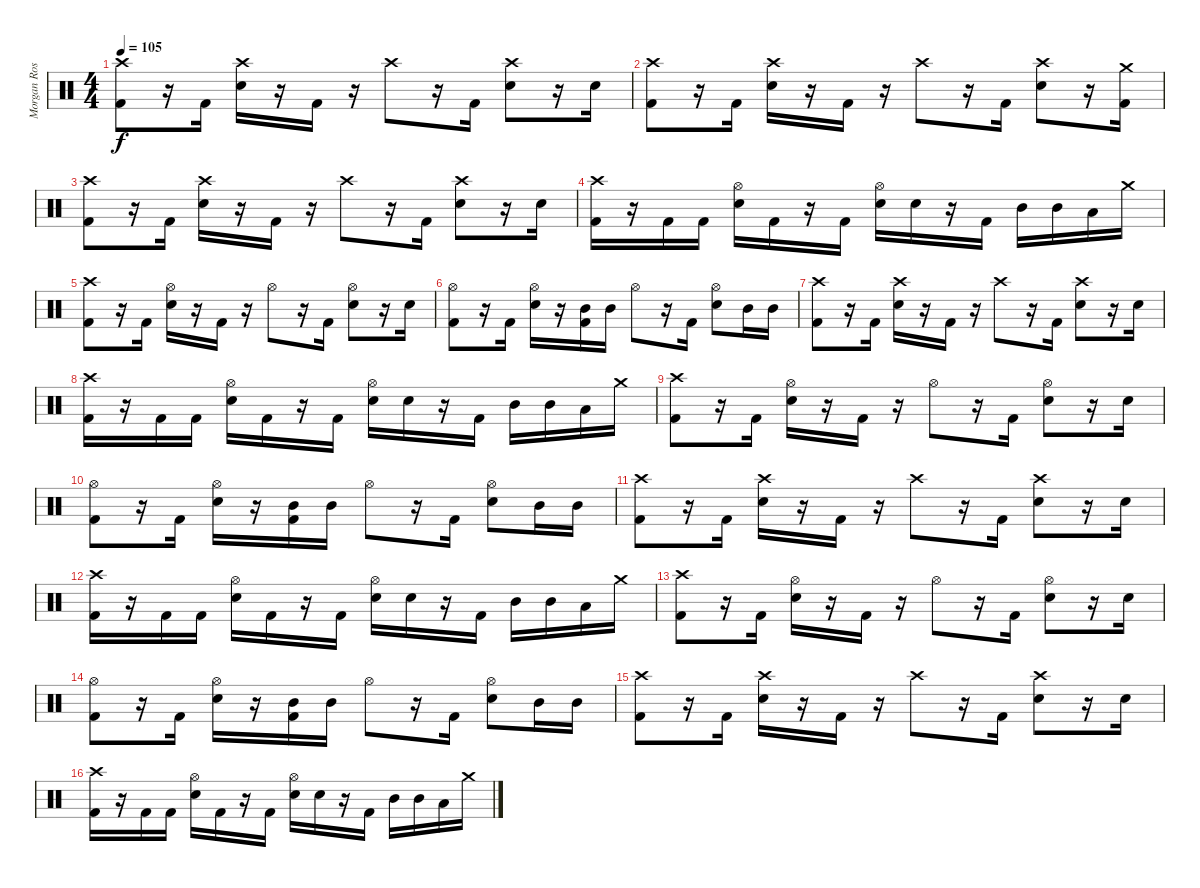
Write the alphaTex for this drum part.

\track ("Morgan Rose - Drums" "Morgan Ros") {instrument percussion}
\staff {score}
\articulation defaults
\ts (4 4)
\tempo 105
\clef neutral
\ks c
("Crash high (hit)" "Kick (hit) 2").8{dy f} r.16 "Kick (hit) 2".16 ("Crash high (hit)" "Electric Snare (hit)").16 r.16 "Kick (hit) 2".16 r.16 "Crash high (hit)".8 r.16 "Kick (hit) 2".16 ("Crash high (hit)" "Electric Snare (hit)").8 r.16 "Electric Snare (hit)".16 |
("Crash high (hit)" "Kick (hit) 2").8 r.16 "Kick (hit) 2".16 ("Crash high (hit)" "Electric Snare (hit)").16 r.16 "Kick (hit) 2".16 r.16 "Crash high (hit)".8 r.16 "Kick (hit) 2".16 ("Crash high (hit)" "Electric Snare (hit)").8 r.16 ("Crash medium (hit)" "Kick (hit) 2").16 |
("Crash high (hit)" "Kick (hit) 2").8 r.16 "Kick (hit) 2".16 ("Crash high (hit)" "Electric Snare (hit)").16 r.16 "Kick (hit) 2".16 r.16 "Crash high (hit)".8 r.16 "Kick (hit) 2".16 ("Crash high (hit)" "Electric Snare (hit)").8 r.16 "Electric Snare (hit)".16 |
("Crash high (hit)" "Kick (hit) 2").16 r.16 "Kick (hit) 2".16 "Kick (hit) 2".16 ("Hi-Hat (open)" "Electric Snare (hit)").16 "Kick (hit) 2".16 r.16 "Kick (hit) 2".16 ("Hi-Hat (open)" "Electric Snare (hit)").16 "Electric Snare (hit)".16 r.16 "Kick (hit) 2".16 "Mid Tom (hit)".16 "Mid Tom (hit)".16 "Low Tom (hit)".16 "Crash medium (hit)".16 |
("Crash high (hit)" "Kick (hit) 2").8 r.16 "Kick (hit) 2".16 ("Hi-Hat (open)" "Electric Snare (hit)").16 r.16 "Kick (hit) 2".16 r.16 "Hi-Hat (open)".8 r.16 "Kick (hit) 2".16 ("Hi-Hat (open)" "Electric Snare (hit)").8 r.16 "Electric Snare (hit)".16 |
("Hi-Hat (open)" "Kick (hit) 2").8 r.16 "Kick (hit) 2".16 ("Hi-Hat (open)" "Electric Snare (hit)").16 r.16 ("Mid Tom (hit)" "Kick (hit) 2").16 "Mid Tom (hit)".16 "Hi-Hat (open)".8 r.16 "Kick (hit) 2".16 ("Hi-Hat (open)" "Electric Snare (hit)").8 "Mid Tom (hit)".16 "Mid Tom (hit)".16 |
("Crash high (hit)" "Kick (hit) 2").8 r.16 "Kick (hit) 2".16 ("Crash high (hit)" "Electric Snare (hit)").16 r.16 "Kick (hit) 2".16 r.16 "Crash high (hit)".8 r.16 "Kick (hit) 2".16 ("Crash high (hit)" "Electric Snare (hit)").8 r.16 "Electric Snare (hit)".16 |
("Crash high (hit)" "Kick (hit) 2").16 r.16 "Kick (hit) 2".16 "Kick (hit) 2".16 ("Hi-Hat (open)" "Electric Snare (hit)").16 "Kick (hit) 2".16 r.16 "Kick (hit) 2".16 ("Hi-Hat (open)" "Electric Snare (hit)").16 "Electric Snare (hit)".16 r.16 "Kick (hit) 2".16 "Mid Tom (hit)".16 "Mid Tom (hit)".16 "Low Tom (hit)".16 "Crash medium (hit)".16 |
("Crash high (hit)" "Kick (hit) 2").8 r.16 "Kick (hit) 2".16 ("Hi-Hat (open)" "Electric Snare (hit)").16 r.16 "Kick (hit) 2".16 r.16 "Hi-Hat (open)".8 r.16 "Kick (hit) 2".16 ("Hi-Hat (open)" "Electric Snare (hit)").8 r.16 "Electric Snare (hit)".16 |
("Hi-Hat (open)" "Kick (hit) 2").8 r.16 "Kick (hit) 2".16 ("Hi-Hat (open)" "Electric Snare (hit)").16 r.16 ("Mid Tom (hit)" "Kick (hit) 2").16 "Mid Tom (hit)".16 "Hi-Hat (open)".8 r.16 "Kick (hit) 2".16 ("Hi-Hat (open)" "Electric Snare (hit)").8 "Mid Tom (hit)".16 "Mid Tom (hit)".16 |
("Crash high (hit)" "Kick (hit) 2").8 r.16 "Kick (hit) 2".16 ("Crash high (hit)" "Electric Snare (hit)").16 r.16 "Kick (hit) 2".16 r.16 "Crash high (hit)".8 r.16 "Kick (hit) 2".16 ("Crash high (hit)" "Electric Snare (hit)").8 r.16 "Electric Snare (hit)".16 |
("Crash high (hit)" "Kick (hit) 2").16 r.16 "Kick (hit) 2".16 "Kick (hit) 2".16 ("Hi-Hat (open)" "Electric Snare (hit)").16 "Kick (hit) 2".16 r.16 "Kick (hit) 2".16 ("Hi-Hat (open)" "Electric Snare (hit)").16 "Electric Snare (hit)".16 r.16 "Kick (hit) 2".16 "Mid Tom (hit)".16 "Mid Tom (hit)".16 "Low Tom (hit)".16 "Crash medium (hit)".16 |
("Crash high (hit)" "Kick (hit) 2").8 r.16 "Kick (hit) 2".16 ("Hi-Hat (open)" "Electric Snare (hit)").16 r.16 "Kick (hit) 2".16 r.16 "Hi-Hat (open)".8 r.16 "Kick (hit) 2".16 ("Hi-Hat (open)" "Electric Snare (hit)").8 r.16 "Electric Snare (hit)".16 |
("Hi-Hat (open)" "Kick (hit) 2").8 r.16 "Kick (hit) 2".16 ("Hi-Hat (open)" "Electric Snare (hit)").16 r.16 ("Mid Tom (hit)" "Kick (hit) 2").16 "Mid Tom (hit)".16 "Hi-Hat (open)".8 r.16 "Kick (hit) 2".16 ("Hi-Hat (open)" "Electric Snare (hit)").8 "Mid Tom (hit)".16 "Mid Tom (hit)".16 |
("Crash high (hit)" "Kick (hit) 2").8 r.16 "Kick (hit) 2".16 ("Crash high (hit)" "Electric Snare (hit)").16 r.16 "Kick (hit) 2".16 r.16 "Crash high (hit)".8 r.16 "Kick (hit) 2".16 ("Crash high (hit)" "Electric Snare (hit)").8 r.16 "Electric Snare (hit)".16 |
("Crash high (hit)" "Kick (hit) 2").16 r.16 "Kick (hit) 2".16 "Kick (hit) 2".16 ("Hi-Hat (open)" "Electric Snare (hit)").16 "Kick (hit) 2".16 r.16 "Kick (hit) 2".16 ("Hi-Hat (open)" "Electric Snare (hit)").16 "Electric Snare (hit)".16 r.16 "Kick (hit) 2".16 "Mid Tom (hit)".16 "Mid Tom (hit)".16 "Low Tom (hit)".16 "Crash medium (hit)".16
